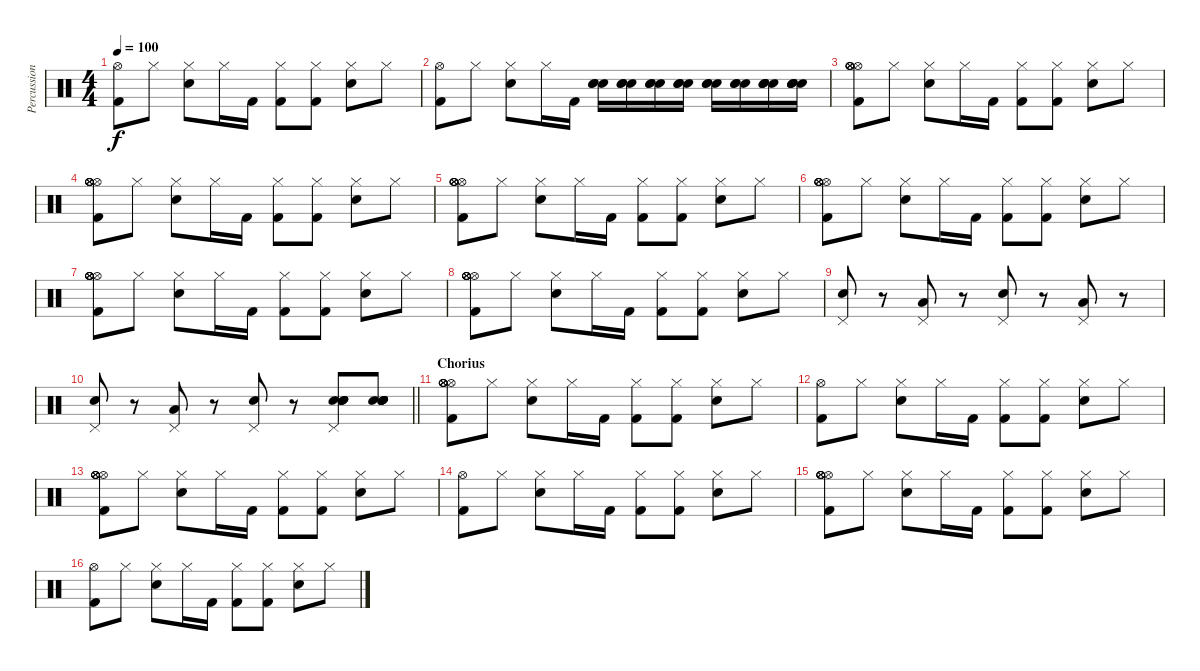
\track ("Percussion" "Percussion") {instrument percussion}
\staff {score}
\articulation defaults
\ts (4 4)
\tempo 100
\clef neutral
\ks c
("Hi-Hat (open)" "Kick (hit) 2").8{dy f} "Hi-Hat (closed)".8 ("Hi-Hat (closed)" "Snare (hit) 2").8 "Hi-Hat (closed)".16 "Kick (hit) 2".16 ("Hi-Hat (closed)" "Kick (hit) 2").8 ("Hi-Hat (closed)" "Kick (hit) 2").8 ("Hi-Hat (closed)" "Snare (hit) 2").8 "Hi-Hat (closed)".8 |
("Hi-Hat (open)" "Kick (hit) 2").8 "Hi-Hat (closed)".8 ("Hi-Hat (closed)" "Snare (hit) 2").8 "Hi-Hat (closed)".16 "Kick (hit) 2".16 ("Electric Snare (hit)" "Electric Snare (hit)" "Electric Snare (hit)").16 ("Electric Snare (hit)" "Electric Snare (hit)" "Electric Snare (hit)").16 ("Electric Snare (hit)" "Electric Snare (hit)" "Electric Snare (hit)").16 ("Electric Snare (hit)" "Electric Snare (hit)" "Electric Snare (hit)").16 ("Electric Snare (hit)" "Electric Snare (hit)" "Electric Snare (hit)").16 ("Electric Snare (hit)" "Electric Snare (hit)" "Electric Snare (hit)").16 ("Electric Snare (hit)" "Electric Snare (hit)" "Electric Snare (hit)" "Electric Snare (hit)").16 ("Electric Snare (hit)" "Electric Snare (hit)" "Electric Snare (hit)" "Electric Snare (hit)").16 |
("Hi-Hat (open)" "Kick (hit) 2" "Hi-Hat (open)" "Hi-Hat (open)" "Hi-Hat (open)" "Hi-Hat (open)").8 "Hi-Hat (closed)".8 ("Hi-Hat (closed)" "Snare (hit) 2").8 "Hi-Hat (closed)".16 "Kick (hit) 2".16 ("Hi-Hat (closed)" "Kick (hit) 2").8 ("Hi-Hat (closed)" "Kick (hit) 2").8 ("Hi-Hat (closed)" "Snare (hit) 2").8 "Hi-Hat (closed)".8 |
("Hi-Hat (open)" "Kick (hit) 2" "Hi-Hat (open)" "Hi-Hat (open)" "Hi-Hat (open)" "Hi-Hat (open)").8 "Hi-Hat (closed)".8 ("Hi-Hat (closed)" "Snare (hit) 2").8 "Hi-Hat (closed)".16 "Kick (hit) 2".16 ("Hi-Hat (closed)" "Kick (hit) 2").8 ("Hi-Hat (closed)" "Kick (hit) 2").8 ("Hi-Hat (closed)" "Snare (hit) 2").8 "Hi-Hat (closed)".8 |
("Hi-Hat (open)" "Kick (hit) 2" "Hi-Hat (open)" "Hi-Hat (open)" "Hi-Hat (open)" "Hi-Hat (open)").8 "Hi-Hat (closed)".8 ("Hi-Hat (closed)" "Snare (hit) 2").8 "Hi-Hat (closed)".16 "Kick (hit) 2".16 ("Hi-Hat (closed)" "Kick (hit) 2").8 ("Hi-Hat (closed)" "Kick (hit) 2").8 ("Hi-Hat (closed)" "Snare (hit) 2").8 "Hi-Hat (closed)".8 |
("Hi-Hat (open)" "Kick (hit) 2" "Hi-Hat (open)" "Hi-Hat (open)" "Hi-Hat (open)" "Hi-Hat (open)").8 "Hi-Hat (closed)".8 ("Hi-Hat (closed)" "Snare (hit) 2").8 "Hi-Hat (closed)".16 "Kick (hit) 2".16 ("Hi-Hat (closed)" "Kick (hit) 2").8 ("Hi-Hat (closed)" "Kick (hit) 2").8 ("Hi-Hat (closed)" "Snare (hit) 2").8 "Hi-Hat (closed)".8 |
("Hi-Hat (open)" "Kick (hit) 2" "Hi-Hat (open)" "Hi-Hat (open)" "Hi-Hat (open)" "Hi-Hat (open)").8 "Hi-Hat (closed)".8 ("Hi-Hat (closed)" "Snare (hit) 2").8 "Hi-Hat (closed)".16 "Kick (hit) 2".16 ("Hi-Hat (closed)" "Kick (hit) 2").8 ("Hi-Hat (closed)" "Kick (hit) 2").8 ("Hi-Hat (closed)" "Snare (hit) 2").8 "Hi-Hat (closed)".8 |
("Hi-Hat (open)" "Kick (hit) 2" "Hi-Hat (open)" "Hi-Hat (open)" "Hi-Hat (open)" "Hi-Hat (open)").8 "Hi-Hat (closed)".8 ("Hi-Hat (closed)" "Snare (hit) 2").8 "Hi-Hat (closed)".16 "Kick (hit) 2".16 ("Hi-Hat (closed)" "Kick (hit) 2").8 ("Hi-Hat (closed)" "Kick (hit) 2").8 ("Hi-Hat (closed)" "Snare (hit) 2").8 "Hi-Hat (closed)".8 |
("Pedal Hi-Hat (hit)" "Electric Snare (hit)").8 r.8 ("Pedal Hi-Hat (hit)" "Low Floor Tom (hit)").8 r.8 ("Pedal Hi-Hat (hit)" "Electric Snare (hit)").8 r.8 ("Pedal Hi-Hat (hit)" "Low Floor Tom (hit)").8 r.8 |
\barLineRight lightlight
("Pedal Hi-Hat (hit)" "Electric Snare (hit)").8 r.8 ("Pedal Hi-Hat (hit)" "Low Floor Tom (hit)").8 r.8 ("Pedal Hi-Hat (hit)" "Electric Snare (hit)").8 r.8 ("Electric Snare (hit)" "Pedal Hi-Hat (hit)" "Electric Snare (hit)" "Electric Snare (hit)" "Electric Snare (hit)").8 ("Electric Snare (hit)" "Electric Snare (hit)" "Electric Snare (hit)" "Electric Snare (hit)" "Electric Snare (hit)").8 |
\section ("" "Chorius")
("Hi-Hat (open)" "Kick (hit) 2" "Hi-Hat (open)" "Hi-Hat (open)" "Hi-Hat (open)" "Hi-Hat (open)").8 "Hi-Hat (closed)".8 ("Hi-Hat (closed)" "Snare (hit) 2").8 "Hi-Hat (closed)".16 "Kick (hit) 2".16 ("Hi-Hat (closed)" "Kick (hit) 2").8 ("Hi-Hat (closed)" "Kick (hit) 2").8 ("Hi-Hat (closed)" "Snare (hit) 2").8 "Hi-Hat (closed)".8 |
("Hi-Hat (open)" "Kick (hit) 2").8 "Hi-Hat (closed)".8 ("Hi-Hat (closed)" "Snare (hit) 2").8 "Hi-Hat (closed)".16 "Kick (hit) 2".16 ("Hi-Hat (closed)" "Kick (hit) 2").8 ("Hi-Hat (closed)" "Kick (hit) 2").8 ("Hi-Hat (closed)" "Snare (hit) 2").8 "Hi-Hat (closed)".8 |
("Hi-Hat (open)" "Kick (hit) 2" "Hi-Hat (open)" "Hi-Hat (open)" "Hi-Hat (open)" "Hi-Hat (open)").8 "Hi-Hat (closed)".8 ("Hi-Hat (closed)" "Snare (hit) 2").8 "Hi-Hat (closed)".16 "Kick (hit) 2".16 ("Hi-Hat (closed)" "Kick (hit) 2").8 ("Hi-Hat (closed)" "Kick (hit) 2").8 ("Hi-Hat (closed)" "Snare (hit) 2").8 "Hi-Hat (closed)".8 |
("Hi-Hat (open)" "Kick (hit) 2").8 "Hi-Hat (closed)".8 ("Hi-Hat (closed)" "Snare (hit) 2").8 "Hi-Hat (closed)".16 "Kick (hit) 2".16 ("Hi-Hat (closed)" "Kick (hit) 2").8 ("Hi-Hat (closed)" "Kick (hit) 2").8 ("Hi-Hat (closed)" "Snare (hit) 2").8 "Hi-Hat (closed)".8 |
("Hi-Hat (open)" "Kick (hit) 2" "Hi-Hat (open)" "Hi-Hat (open)" "Hi-Hat (open)" "Hi-Hat (open)").8 "Hi-Hat (closed)".8 ("Hi-Hat (closed)" "Snare (hit) 2").8 "Hi-Hat (closed)".16 "Kick (hit) 2".16 ("Hi-Hat (closed)" "Kick (hit) 2").8 ("Hi-Hat (closed)" "Kick (hit) 2").8 ("Hi-Hat (closed)" "Snare (hit) 2").8 "Hi-Hat (closed)".8 |
("Hi-Hat (open)" "Kick (hit) 2").8 "Hi-Hat (closed)".8 ("Hi-Hat (closed)" "Snare (hit) 2").8 "Hi-Hat (closed)".16 "Kick (hit) 2".16 ("Hi-Hat (closed)" "Kick (hit) 2").8 ("Hi-Hat (closed)" "Kick (hit) 2").8 ("Hi-Hat (closed)" "Snare (hit) 2").8 "Hi-Hat (closed)".8
